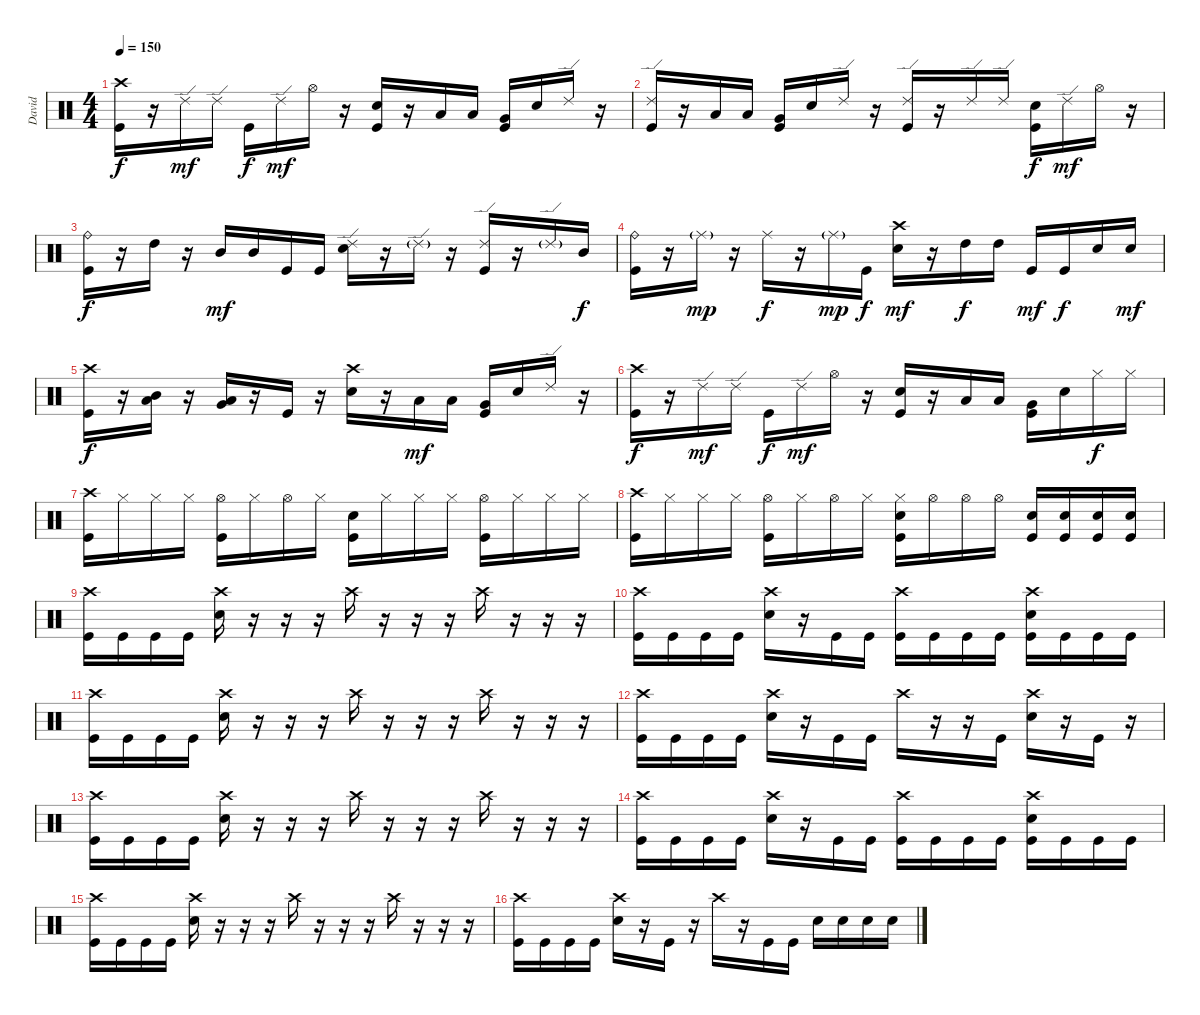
\track ("David" "David") {instrument percussion}
\staff {score}
\articulation defaults
\ts (4 4)
\tempo 150
\clef neutral
\ks c
("Crash high (hit)" "Kick (hit)").16{dy f} r.16 "Ride (edge) 2".16{dy mf} "Ride (edge) 2".16 "Kick (hit)".16{dy f} "Ride (edge) 2".16{dy mf} "Hi-Hat (open)".16 r.16 ("Electric Snare (hit)" "Kick (hit)").16 r.16 "Low Tom (hit)".16 "Low Tom (hit)".16 ("Very Low Tom (hit)" "Kick (hit)").16 "Electric Snare (hit)".16{beam merge} "Ride (edge) 2".16 r.16 |
("Ride (edge) 2" "Kick (hit)").16 r.16 "Low Tom (hit)".16 "Low Tom (hit)".16 ("Very Low Tom (hit)" "Kick (hit)").16 "Electric Snare (hit)".16{beam merge} "Ride (edge) 2".16 r.16 ("Ride (edge) 2" "Kick (hit)").16 r.16 "Ride (edge) 2".16 "Ride (edge) 2".16 ("Electric Snare (hit)" "Kick (hit)").16{dy f} "Ride (edge) 2".16{dy mf} "Hi-Hat (open)".16 r.16 |
("Ride (bell)" "Kick (hit)").16{dy f} r.16 "High Tom (hit)".16 r.16 "Mid Tom (hit)".16{dy mf} "Mid Tom (hit)".16 "Kick (hit)".16 "Kick (hit)".16 ("Ride (edge) 2" "Electric Snare (hit)").16 r.16 "Ride (edge) 2"{g}.16 r.16 ("Ride (edge) 2" "Kick (hit)").16 r.16 "Ride (edge) 2"{g}.16 "Mid Tom (hit)".16{dy f} |
("Ride (bell)" "Kick (hit)").16 r.16 "Ride (middle)"{g}.16{dy mp} r.16 "Ride (middle)".16{dy f} r.16 "Ride (middle)"{g}.16{dy mp} "Kick (hit)".16{dy f} ("Crash high (hit)" "Electric Snare (hit)").16{dy mf} r.16 "High Tom (hit)".16{dy f} "High Tom (hit)".16 "Kick (hit)".16{dy mf} "Kick (hit)".16{dy f} "Electric Snare (hit)".16 "Electric Snare (hit)".16{dy mf} |
("Crash high (hit)" "Kick (hit)").16{dy f} r.16 ("Mid Tom (hit)" "Low Tom (hit)").16 r.16 ("Low Tom (hit)" "Very Low Tom (hit)").16 r.16 "Kick (hit)".16 r.16 ("Crash high (hit)" "Electric Snare (hit)").16 r.16 "Low Tom (hit)".16{dy mf} "Low Tom (hit)".16 ("Very Low Tom (hit)" "Kick (hit)").16 "Electric Snare (hit)".16{beam merge} "Ride (edge) 2".16 r.16 |
("Crash high (hit)" "Kick (hit)").16{dy f} r.16 "Ride (edge) 2".16{dy mf} "Ride (edge) 2".16 "Kick (hit)".16{dy f} "Ride (edge) 2".16{dy mf} "Hi-Hat (open)".16 r.16 ("Electric Snare (hit)" "Kick (hit)").16 r.16 "Low Tom (hit)".16 "Low Tom (hit)".16 ("Very Low Tom (hit)" "Kick (hit)").16 "Electric Snare (hit)".16{beam merge} "Hi-Hat (closed)".16{dy f} "Hi-Hat (closed)".16 |
("Crash high (hit)" "Kick (hit)").16 "Hi-Hat (closed)".16 "Hi-Hat (closed)".16 "Hi-Hat (closed)".16 ("Hi-Hat (open)" "Kick (hit)").16 "Hi-Hat (closed)".16 "Hi-Hat (open)".16 "Hi-Hat (closed)".16 ("Electric Snare (hit)" "Kick (hit)").16 "Hi-Hat (closed)".16 "Hi-Hat (closed)".16 "Hi-Hat (closed)".16 ("Hi-Hat (open)" "Kick (hit)").16 "Hi-Hat (closed)".16 "Hi-Hat (closed)".16 "Hi-Hat (closed)".16 |
("Crash high (hit)" "Kick (hit)").16 "Hi-Hat (closed)".16 "Hi-Hat (closed)".16 "Hi-Hat (closed)".16 ("Hi-Hat (open)" "Kick (hit)").16 "Hi-Hat (closed)".16 "Hi-Hat (open)".16 "Hi-Hat (closed)".16 ("Hi-Hat (closed)" "Electric Snare (hit)" "Kick (hit)").16 "Hi-Hat (open)".16 "Hi-Hat (open)".16 "Hi-Hat (open)".16 ("Electric Snare (hit)" "Kick (hit)").16 ("Electric Snare (hit)" "Kick (hit)").16 ("Electric Snare (hit)" "Kick (hit)").16 ("Electric Snare (hit)" "Kick (hit)").16 |
("Crash high (hit)" "Kick (hit)").16 "Kick (hit)".16 "Kick (hit)".16 "Kick (hit)".16 ("Crash high (hit)" "Electric Snare (hit)").16 r.16 r.16 r.16 "Crash high (hit)".16 r.16 r.16 r.16 "Crash high (hit)".16 r.16 r.16 r.16 |
("Crash high (hit)" "Kick (hit)").16 "Kick (hit)".16 "Kick (hit)".16 "Kick (hit)".16 ("Crash high (hit)" "Electric Snare (hit)").16 r.16 "Kick (hit)".16 "Kick (hit)".16 ("Crash high (hit)" "Kick (hit)").16 "Kick (hit)".16 "Kick (hit)".16 "Kick (hit)".16 ("Crash high (hit)" "Electric Snare (hit)" "Kick (hit)").16 "Kick (hit)".16 "Kick (hit)".16 "Kick (hit)".16 |
("Crash high (hit)" "Kick (hit)").16 "Kick (hit)".16 "Kick (hit)".16 "Kick (hit)".16 ("Crash high (hit)" "Electric Snare (hit)").16 r.16 r.16 r.16 "Crash high (hit)".16 r.16 r.16 r.16 "Crash high (hit)".16 r.16 r.16 r.16 |
("Crash high (hit)" "Kick (hit)").16 "Kick (hit)".16 "Kick (hit)".16 "Kick (hit)".16 ("Crash high (hit)" "Electric Snare (hit)").16 r.16 "Kick (hit)".16 "Kick (hit)".16 "Crash high (hit)".16 r.16 r.16 "Kick (hit)".16 ("Crash high (hit)" "Electric Snare (hit)").16 r.16 "Kick (hit)".16 r.16 |
("Crash high (hit)" "Kick (hit)").16 "Kick (hit)".16 "Kick (hit)".16 "Kick (hit)".16 ("Crash high (hit)" "Electric Snare (hit)").16 r.16 r.16 r.16 "Crash high (hit)".16 r.16 r.16 r.16 "Crash high (hit)".16 r.16 r.16 r.16 |
("Crash high (hit)" "Kick (hit)").16 "Kick (hit)".16 "Kick (hit)".16 "Kick (hit)".16 ("Crash high (hit)" "Electric Snare (hit)").16 r.16 "Kick (hit)".16 "Kick (hit)".16 ("Crash high (hit)" "Kick (hit)").16 "Kick (hit)".16 "Kick (hit)".16 "Kick (hit)".16 ("Crash high (hit)" "Electric Snare (hit)" "Kick (hit)").16 "Kick (hit)".16 "Kick (hit)".16 "Kick (hit)".16 |
("Crash high (hit)" "Kick (hit)").16 "Kick (hit)".16 "Kick (hit)".16 "Kick (hit)".16 ("Crash high (hit)" "Electric Snare (hit)").16 r.16 r.16 r.16 "Crash high (hit)".16 r.16 r.16 r.16 "Crash high (hit)".16 r.16 r.16 r.16 |
("Crash high (hit)" "Kick (hit)").16 "Kick (hit)".16 "Kick (hit)".16 "Kick (hit)".16 ("Crash high (hit)" "Electric Snare (hit)").16 r.16 "Kick (hit)".16 r.16 "Crash high (hit)".16 r.16 "Kick (hit)".16 "Kick (hit)".16 "Electric Snare (hit)".16 "Electric Snare (hit)".16 "Electric Snare (hit)".16 "Electric Snare (hit)".16
